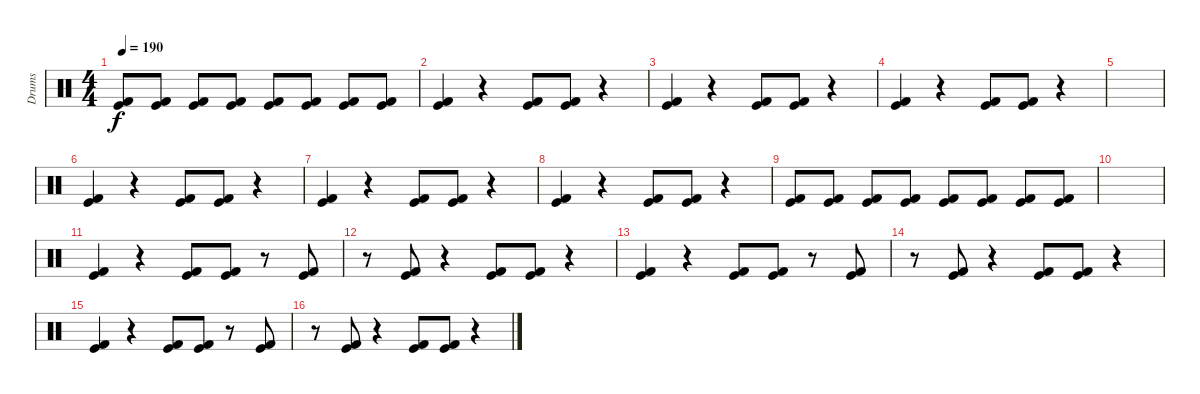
\track ("Drums" "Drums") {instrument percussion}
\staff {score}
\articulation defaults
\ts (4 4)
\tempo 190
\clef neutral
\ks c
("Kick (hit) 2" "Kick (hit)").8{dy f} ("Kick (hit) 2" "Kick (hit)").8 ("Kick (hit) 2" "Kick (hit)").8 ("Kick (hit) 2" "Kick (hit)").8 ("Kick (hit) 2" "Kick (hit)").8 ("Kick (hit) 2" "Kick (hit)").8 ("Kick (hit) 2" "Kick (hit)").8 ("Kick (hit) 2" "Kick (hit)").8 |
("Kick (hit) 2" "Kick (hit)").4 r.4 ("Kick (hit) 2" "Kick (hit)").8 ("Kick (hit) 2" "Kick (hit)").8 r.4 |
("Kick (hit) 2" "Kick (hit)").4 r.4 ("Kick (hit) 2" "Kick (hit)").8 ("Kick (hit) 2" "Kick (hit)").8 r.4 |
("Kick (hit) 2" "Kick (hit)").4 r.4 ("Kick (hit) 2" "Kick (hit)").8 ("Kick (hit) 2" "Kick (hit)").8 r.4 |
|
("Kick (hit) 2" "Kick (hit)").4 r.4 ("Kick (hit) 2" "Kick (hit)").8 ("Kick (hit) 2" "Kick (hit)").8 r.4 |
("Kick (hit) 2" "Kick (hit)").4 r.4 ("Kick (hit) 2" "Kick (hit)").8 ("Kick (hit) 2" "Kick (hit)").8 r.4 |
("Kick (hit) 2" "Kick (hit)").4 r.4 ("Kick (hit) 2" "Kick (hit)").8 ("Kick (hit) 2" "Kick (hit)").8 r.4 |
("Kick (hit) 2" "Kick (hit)").8 ("Kick (hit) 2" "Kick (hit)").8 ("Kick (hit) 2" "Kick (hit)").8 ("Kick (hit) 2" "Kick (hit)").8 ("Kick (hit) 2" "Kick (hit)").8 ("Kick (hit) 2" "Kick (hit)").8 ("Kick (hit) 2" "Kick (hit)").8 ("Kick (hit) 2" "Kick (hit)").8 |
|
("Kick (hit) 2" "Kick (hit)").4 r.4 ("Kick (hit) 2" "Kick (hit)").8 ("Kick (hit) 2" "Kick (hit)").8 r.8 ("Kick (hit) 2" "Kick (hit)").8 |
r.8 ("Kick (hit) 2" "Kick (hit)").8 r.4 ("Kick (hit) 2" "Kick (hit)").8 ("Kick (hit) 2" "Kick (hit)").8 r.4 |
("Kick (hit) 2" "Kick (hit)").4 r.4 ("Kick (hit) 2" "Kick (hit)").8 ("Kick (hit) 2" "Kick (hit)").8 r.8 ("Kick (hit) 2" "Kick (hit)").8 |
r.8 ("Kick (hit) 2" "Kick (hit)").8 r.4 ("Kick (hit) 2" "Kick (hit)").8 ("Kick (hit) 2" "Kick (hit)").8 r.4 |
("Kick (hit) 2" "Kick (hit)").4 r.4 ("Kick (hit) 2" "Kick (hit)").8 ("Kick (hit) 2" "Kick (hit)").8 r.8 ("Kick (hit) 2" "Kick (hit)").8 |
r.8 ("Kick (hit) 2" "Kick (hit)").8 r.4 ("Kick (hit) 2" "Kick (hit)").8 ("Kick (hit) 2" "Kick (hit)").8 r.4
